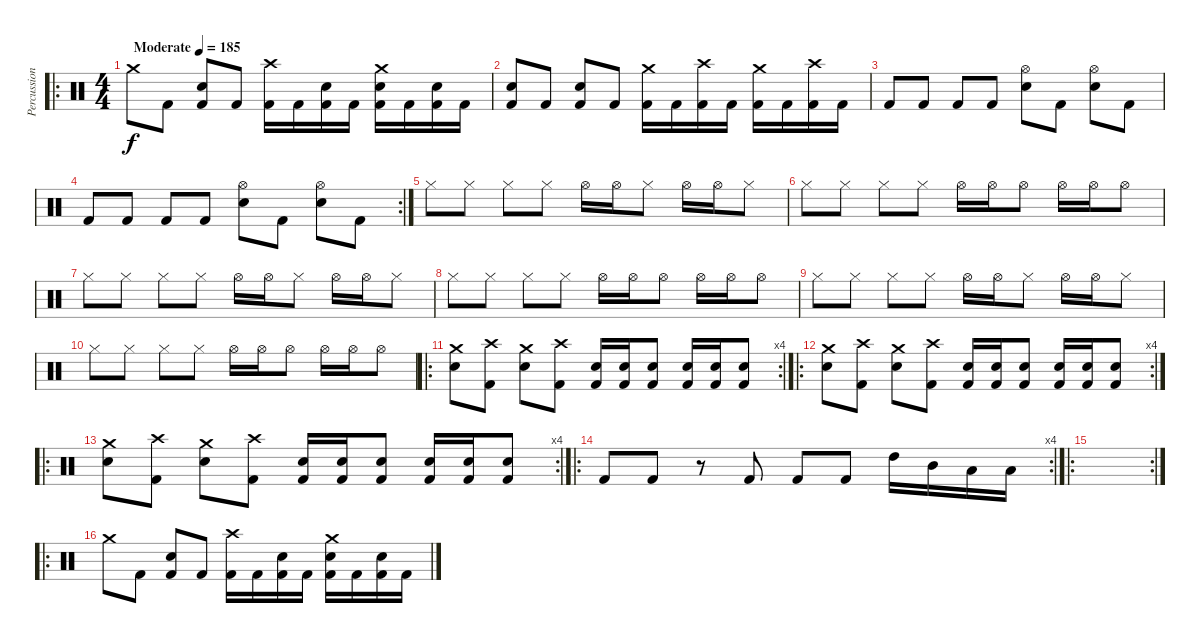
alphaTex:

\track ("Percussion" "Percussion") {instrument percussion}
\staff {score}
\articulation defaults
\ro
\ts (4 4)
\tempo (185 "Moderate")
\clef neutral
\ks c "Crash medium (hit)".8{dy f} "Kick (hit) 2".8
("Kick (hit) 2" "Electric Snare (hit)").8 "Kick (hit) 2".8 ("Kick (hit) 2" "Crash high (hit)").16 "Kick (hit) 2".16 ("Kick (hit) 2" "Electric Snare (hit)").16 "Kick (hit) 2".16 ("Kick (hit) 2" "Electric Snare (hit)" "Crash medium (hit)").16 "Kick (hit) 2".16 ("Kick (hit) 2" "Electric Snare (hit)").16 "Kick (hit) 2".16 |
("Kick (hit) 2" "Electric Snare (hit)").8 "Kick (hit) 2".8 ("Kick (hit) 2" "Electric Snare (hit)").8 "Kick (hit) 2".8 ("Kick (hit) 2" "Crash medium (hit)").16 "Kick (hit) 2".16 ("Kick (hit) 2" "Crash high (hit)").16 "Kick (hit) 2".16 ("Kick (hit) 2" "Crash medium (hit)").16 "Kick (hit) 2".16 ("Kick (hit) 2" "Crash high (hit)").16 "Kick (hit) 2".16 |
"Kick (hit) 2".8 "Kick (hit) 2".8 "Kick (hit) 2".8 "Kick (hit) 2".8 ("Electric Snare (hit)" "Hi-Hat (open)").8 "Kick (hit) 2".8 ("Electric Snare (hit)" "Hi-Hat (open)").8 "Kick (hit) 2".8 |
\rc 2 "Kick (hit) 2".8 "Kick (hit) 2".8 "Kick (hit) 2".8 "Kick (hit) 2".8
("Electric Snare (hit)" "Hi-Hat (open)").8 "Kick (hit) 2".8 ("Electric Snare (hit)" "Hi-Hat (open)").8 "Kick (hit) 2".8 |
"Hi-Hat (closed)".8 "Hi-Hat (closed)".8 "Hi-Hat (closed)".8 "Hi-Hat (closed)".8 "Hi-Hat (open)".16 "Hi-Hat (open)".16 "Hi-Hat (closed)".8 "Hi-Hat (open)".16 "Hi-Hat (open)".16 "Hi-Hat (closed)".8 |
"Hi-Hat (closed)".8 "Hi-Hat (closed)".8 "Hi-Hat (closed)".8 "Hi-Hat (closed)".8 "Hi-Hat (open)".16 "Hi-Hat (open)".16 "Hi-Hat (open)".8 "Hi-Hat (open)".16 "Hi-Hat (open)".16 "Hi-Hat (open)".8 |
"Hi-Hat (closed)".8 "Hi-Hat (closed)".8 "Hi-Hat (closed)".8 "Hi-Hat (closed)".8 "Hi-Hat (open)".16 "Hi-Hat (open)".16 "Hi-Hat (closed)".8 "Hi-Hat (open)".16 "Hi-Hat (open)".16 "Hi-Hat (closed)".8 |
"Hi-Hat (closed)".8 "Hi-Hat (closed)".8 "Hi-Hat (closed)".8 "Hi-Hat (closed)".8 "Hi-Hat (open)".16 "Hi-Hat (open)".16 "Hi-Hat (open)".8 "Hi-Hat (open)".16 "Hi-Hat (open)".16 "Hi-Hat (open)".8 |
"Hi-Hat (closed)".8 "Hi-Hat (closed)".8 "Hi-Hat (closed)".8 "Hi-Hat (closed)".8 "Hi-Hat (open)".16 "Hi-Hat (open)".16 "Hi-Hat (closed)".8 "Hi-Hat (open)".16 "Hi-Hat (open)".16 "Hi-Hat (closed)".8 |
"Hi-Hat (closed)".8 "Hi-Hat (closed)".8 "Hi-Hat (closed)".8 "Hi-Hat (closed)".8 "Hi-Hat (open)".16 "Hi-Hat (open)".16 "Hi-Hat (open)".8 "Hi-Hat (open)".16 "Hi-Hat (open)".16 "Hi-Hat (open)".8 |
\ro
\rc 4
("Electric Snare (hit)" "Crash medium (hit)").8 ("Kick (hit) 2" "Crash high (hit)").8 ("Electric Snare (hit)" "Crash medium (hit)").8 ("Kick (hit) 2" "Crash high (hit)").8 ("Kick (hit) 2" "Electric Snare (hit)").16 ("Kick (hit) 2" "Electric Snare (hit)").16 ("Kick (hit) 2" "Electric Snare (hit)").8 ("Kick (hit) 2" "Electric Snare (hit)").16 ("Kick (hit) 2" "Electric Snare (hit)").16 ("Kick (hit) 2" "Electric Snare (hit)").8 |
\ro
\rc 4
("Electric Snare (hit)" "Crash medium (hit)").8 ("Kick (hit) 2" "Crash high (hit)").8 ("Electric Snare (hit)" "Crash medium (hit)").8 ("Kick (hit) 2" "Crash high (hit)").8 ("Kick (hit) 2" "Electric Snare (hit)").16 ("Kick (hit) 2" "Electric Snare (hit)").16 ("Kick (hit) 2" "Electric Snare (hit)").8 ("Kick (hit) 2" "Electric Snare (hit)").16 ("Kick (hit) 2" "Electric Snare (hit)").16 ("Kick (hit) 2" "Electric Snare (hit)").8 |
\ro
\rc 4
("Electric Snare (hit)" "Crash medium (hit)").8 ("Kick (hit) 2" "Crash high (hit)").8 ("Electric Snare (hit)" "Crash medium (hit)").8 ("Kick (hit) 2" "Crash high (hit)").8 ("Kick (hit) 2" "Electric Snare (hit)").16 ("Kick (hit) 2" "Electric Snare (hit)").16 ("Kick (hit) 2" "Electric Snare (hit)").8 ("Kick (hit) 2" "Electric Snare (hit)").16 ("Kick (hit) 2" "Electric Snare (hit)").16 ("Kick (hit) 2" "Electric Snare (hit)").8 |
\ro
\rc 4 "Kick (hit) 2".8 "Kick (hit) 2".8
r.8 "Kick (hit) 2".8 "Kick (hit) 2".8 "Kick (hit) 2".8 "High Tom (hit)".16 "Mid Tom (hit)".16 "Low Tom (hit)".16 "Low Floor Tom (hit)".16 |
\ro
\rc 2
|
\ro "Crash medium (hit)".8 "Kick (hit) 2".8
("Kick (hit) 2" "Electric Snare (hit)").8 "Kick (hit) 2".8 ("Kick (hit) 2" "Crash high (hit)").16 "Kick (hit) 2".16 ("Kick (hit) 2" "Electric Snare (hit)").16 "Kick (hit) 2".16 ("Kick (hit) 2" "Electric Snare (hit)" "Crash medium (hit)").16 "Kick (hit) 2".16 ("Kick (hit) 2" "Electric Snare (hit)").16 "Kick (hit) 2".16
